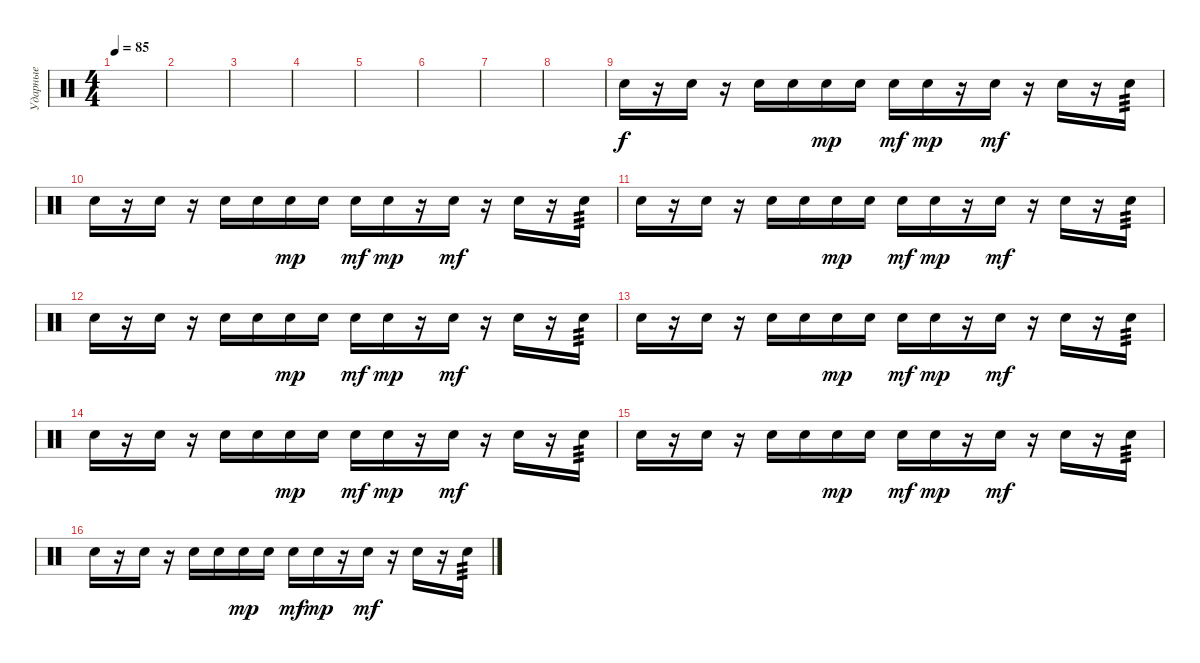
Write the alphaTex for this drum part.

\track ("Ударные" "Ударные") {instrument percussion}
\staff {score}
\articulation defaults
\ts (4 4)
\tempo 85
\clef neutral
\ks c
|
|
|
|
|
|
|
|
"Hand Clap (hit)".16 r.16 "Hand Clap (hit)".16 r.16 "Hand Clap (hit)".16 "Hand Clap (hit)".16 "Hand Clap (hit)".16{dy mp} "Hand Clap (hit)".16 "Hand Clap (hit)".16{dy mf} "Hand Clap (hit)".16{dy mp} r.16 "Hand Clap (hit)".16{dy mf} r.16 "Hand Clap (hit)".16 r.16 "Hand Clap (hit)".16{tp 3} |
"Hand Clap (hit)".16 r.16 "Hand Clap (hit)".16 r.16 "Hand Clap (hit)".16 "Hand Clap (hit)".16 "Hand Clap (hit)".16{dy mp} "Hand Clap (hit)".16 "Hand Clap (hit)".16{dy mf} "Hand Clap (hit)".16{dy mp} r.16 "Hand Clap (hit)".16{dy mf} r.16 "Hand Clap (hit)".16 r.16 "Hand Clap (hit)".16{tp 3} |
"Hand Clap (hit)".16 r.16 "Hand Clap (hit)".16 r.16 "Hand Clap (hit)".16 "Hand Clap (hit)".16 "Hand Clap (hit)".16{dy mp} "Hand Clap (hit)".16 "Hand Clap (hit)".16{dy mf} "Hand Clap (hit)".16{dy mp} r.16 "Hand Clap (hit)".16{dy mf} r.16 "Hand Clap (hit)".16 r.16 "Hand Clap (hit)".16{tp 3} |
"Hand Clap (hit)".16 r.16 "Hand Clap (hit)".16 r.16 "Hand Clap (hit)".16 "Hand Clap (hit)".16 "Hand Clap (hit)".16{dy mp} "Hand Clap (hit)".16 "Hand Clap (hit)".16{dy mf} "Hand Clap (hit)".16{dy mp} r.16 "Hand Clap (hit)".16{dy mf} r.16 "Hand Clap (hit)".16 r.16 "Hand Clap (hit)".16{tp 3} |
"Hand Clap (hit)".16 r.16 "Hand Clap (hit)".16 r.16 "Hand Clap (hit)".16 "Hand Clap (hit)".16 "Hand Clap (hit)".16{dy mp} "Hand Clap (hit)".16 "Hand Clap (hit)".16{dy mf} "Hand Clap (hit)".16{dy mp} r.16 "Hand Clap (hit)".16{dy mf} r.16 "Hand Clap (hit)".16 r.16 "Hand Clap (hit)".16{tp 3} |
"Hand Clap (hit)".16 r.16 "Hand Clap (hit)".16 r.16 "Hand Clap (hit)".16 "Hand Clap (hit)".16 "Hand Clap (hit)".16{dy mp} "Hand Clap (hit)".16 "Hand Clap (hit)".16{dy mf} "Hand Clap (hit)".16{dy mp} r.16 "Hand Clap (hit)".16{dy mf} r.16 "Hand Clap (hit)".16 r.16 "Hand Clap (hit)".16{tp 3} |
"Hand Clap (hit)".16 r.16 "Hand Clap (hit)".16 r.16 "Hand Clap (hit)".16 "Hand Clap (hit)".16 "Hand Clap (hit)".16{dy mp} "Hand Clap (hit)".16 "Hand Clap (hit)".16{dy mf} "Hand Clap (hit)".16{dy mp} r.16 "Hand Clap (hit)".16{dy mf} r.16 "Hand Clap (hit)".16 r.16 "Hand Clap (hit)".16{tp 3} |
"Hand Clap (hit)".16 r.16 "Hand Clap (hit)".16 r.16 "Hand Clap (hit)".16 "Hand Clap (hit)".16 "Hand Clap (hit)".16{dy mp} "Hand Clap (hit)".16 "Hand Clap (hit)".16{dy mf} "Hand Clap (hit)".16{dy mp} r.16 "Hand Clap (hit)".16{dy mf} r.16 "Hand Clap (hit)".16 r.16 "Hand Clap (hit)".16{tp 3}
